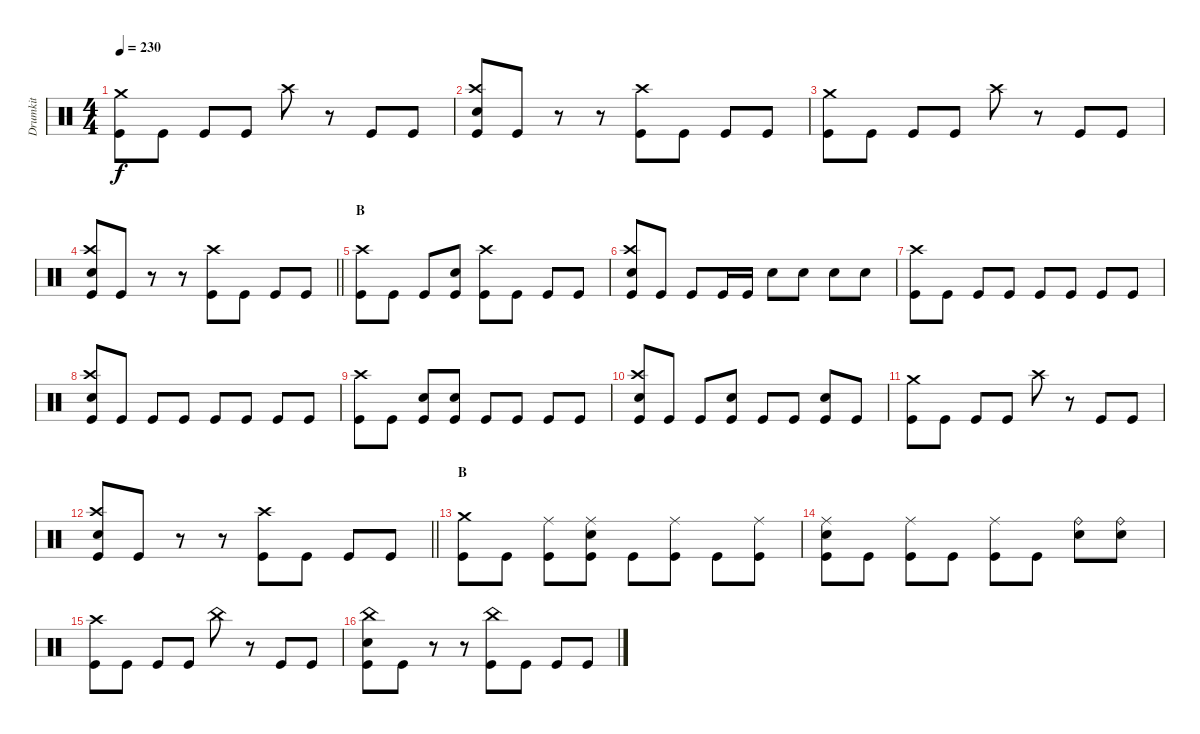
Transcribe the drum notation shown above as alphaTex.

\track ("Drumkit" "Drumkit") {instrument percussion}
\staff {score}
\articulation defaults
\ts (4 4)
\tempo 230
\clef neutral
\ks c
("Crash medium (hit)" "Kick (hit)").8{dy f} "Kick (hit)".8 "Kick (hit)".8 "Kick (hit)".8 "Crash high (hit)".8 r.8 "Kick (hit)".8 "Kick (hit)".8 |
("Crash high (hit)" "Snare (hit) 2" "Kick (hit)").8 "Kick (hit)".8 r.8 r.8 ("Crash high (hit)" "Kick (hit)").8 "Kick (hit)".8 "Kick (hit)".8 "Kick (hit)".8 |
("Crash medium (hit)" "Kick (hit)").8 "Kick (hit)".8 "Kick (hit)".8 "Kick (hit)".8 "Crash high (hit)".8 r.8 "Kick (hit)".8 "Kick (hit)".8 |
\barLineRight lightlight
("Crash high (hit)" "Snare (hit) 2" "Kick (hit)").8 "Kick (hit)".8 r.8 r.8 ("Crash high (hit)" "Kick (hit)").8 "Kick (hit)".8 "Kick (hit)".8 "Kick (hit)".8 |
\section ("" "B")
("Crash high (hit)" "Kick (hit)").8 "Kick (hit)".8 "Kick (hit)".8 ("Snare (hit) 2" "Kick (hit)").8 ("Crash high (hit)" "Kick (hit)").8 "Kick (hit)".8 "Kick (hit)".8 "Kick (hit)".8 |
("Crash high (hit)" "Snare (hit) 2" "Kick (hit)").8 "Kick (hit)".8 "Kick (hit)".8 "Kick (hit)".16 "Kick (hit)".16 "Snare (hit) 2".8 "Snare (hit) 2".8 "Snare (hit) 2".8 "Snare (hit) 2".8 |
("Crash high (hit)" "Kick (hit)").8 "Kick (hit)".8 "Kick (hit)".8 "Kick (hit)".8 "Kick (hit)".8 "Kick (hit)".8 "Kick (hit)".8 "Kick (hit)".8 |
("Crash high (hit)" "Snare (hit) 2" "Kick (hit)").8 "Kick (hit)".8 "Kick (hit)".8 "Kick (hit)".8 "Kick (hit)".8 "Kick (hit)".8 "Kick (hit)".8 "Kick (hit)".8 |
("Crash high (hit)" "Kick (hit)").8 "Kick (hit)".8 ("Snare (hit) 2" "Kick (hit)").8 ("Snare (hit) 2" "Kick (hit)").8 "Kick (hit)".8 "Kick (hit)".8 "Kick (hit)".8 "Kick (hit)".8 |
("Crash high (hit)" "Snare (hit) 2" "Kick (hit)").8 "Kick (hit)".8 "Kick (hit)".8 ("Snare (hit) 2" "Kick (hit)").8 "Kick (hit)".8 "Kick (hit)".8 ("Snare (hit) 2" "Kick (hit)").8 "Kick (hit)".8 |
("Crash medium (hit)" "Kick (hit)").8 "Kick (hit)".8 "Kick (hit)".8 "Kick (hit)".8 "Crash high (hit)".8 r.8 "Kick (hit)".8 "Kick (hit)".8 |
\barLineRight lightlight
("Crash high (hit)" "Snare (hit) 2" "Kick (hit)").8 "Kick (hit)".8 r.8 r.8 ("Crash high (hit)" "Kick (hit)").8 "Kick (hit)".8 "Kick (hit)".8 "Kick (hit)".8 |
\section ("" "B")
("Crash medium (hit)" "Kick (hit)").8 "Kick (hit)".8 ("Ride (middle)" "Kick (hit)").8 ("Ride (middle)" "Snare (hit) 2" "Kick (hit)").8 "Kick (hit)".8 ("Ride (middle)" "Kick (hit)").8 "Kick (hit)".8 ("Ride (middle)" "Kick (hit)").8 |
("Ride (middle)" "Snare (hit) 2" "Kick (hit)").8 "Kick (hit)".8 ("Ride (middle)" "Kick (hit)").8 "Kick (hit)".8 ("Ride (middle)" "Kick (hit)").8 "Kick (hit)".8 ("Ride (bell)" "Snare (hit) 2").8 ("Ride (bell)" "Snare (hit) 2").8 |
("Crash high (hit)" "Kick (hit)").8 "Kick (hit)".8 "Kick (hit)".8 "Kick (hit)".8 "China (hit)".8 r.8 "Kick (hit)".8 "Kick (hit)".8 |
("China (hit)" "Snare (hit) 2" "Kick (hit)").8 "Kick (hit)".8 r.8 r.8 ("China (hit)" "Kick (hit)").8 "Kick (hit)".8 "Kick (hit)".8 "Kick (hit)".8
